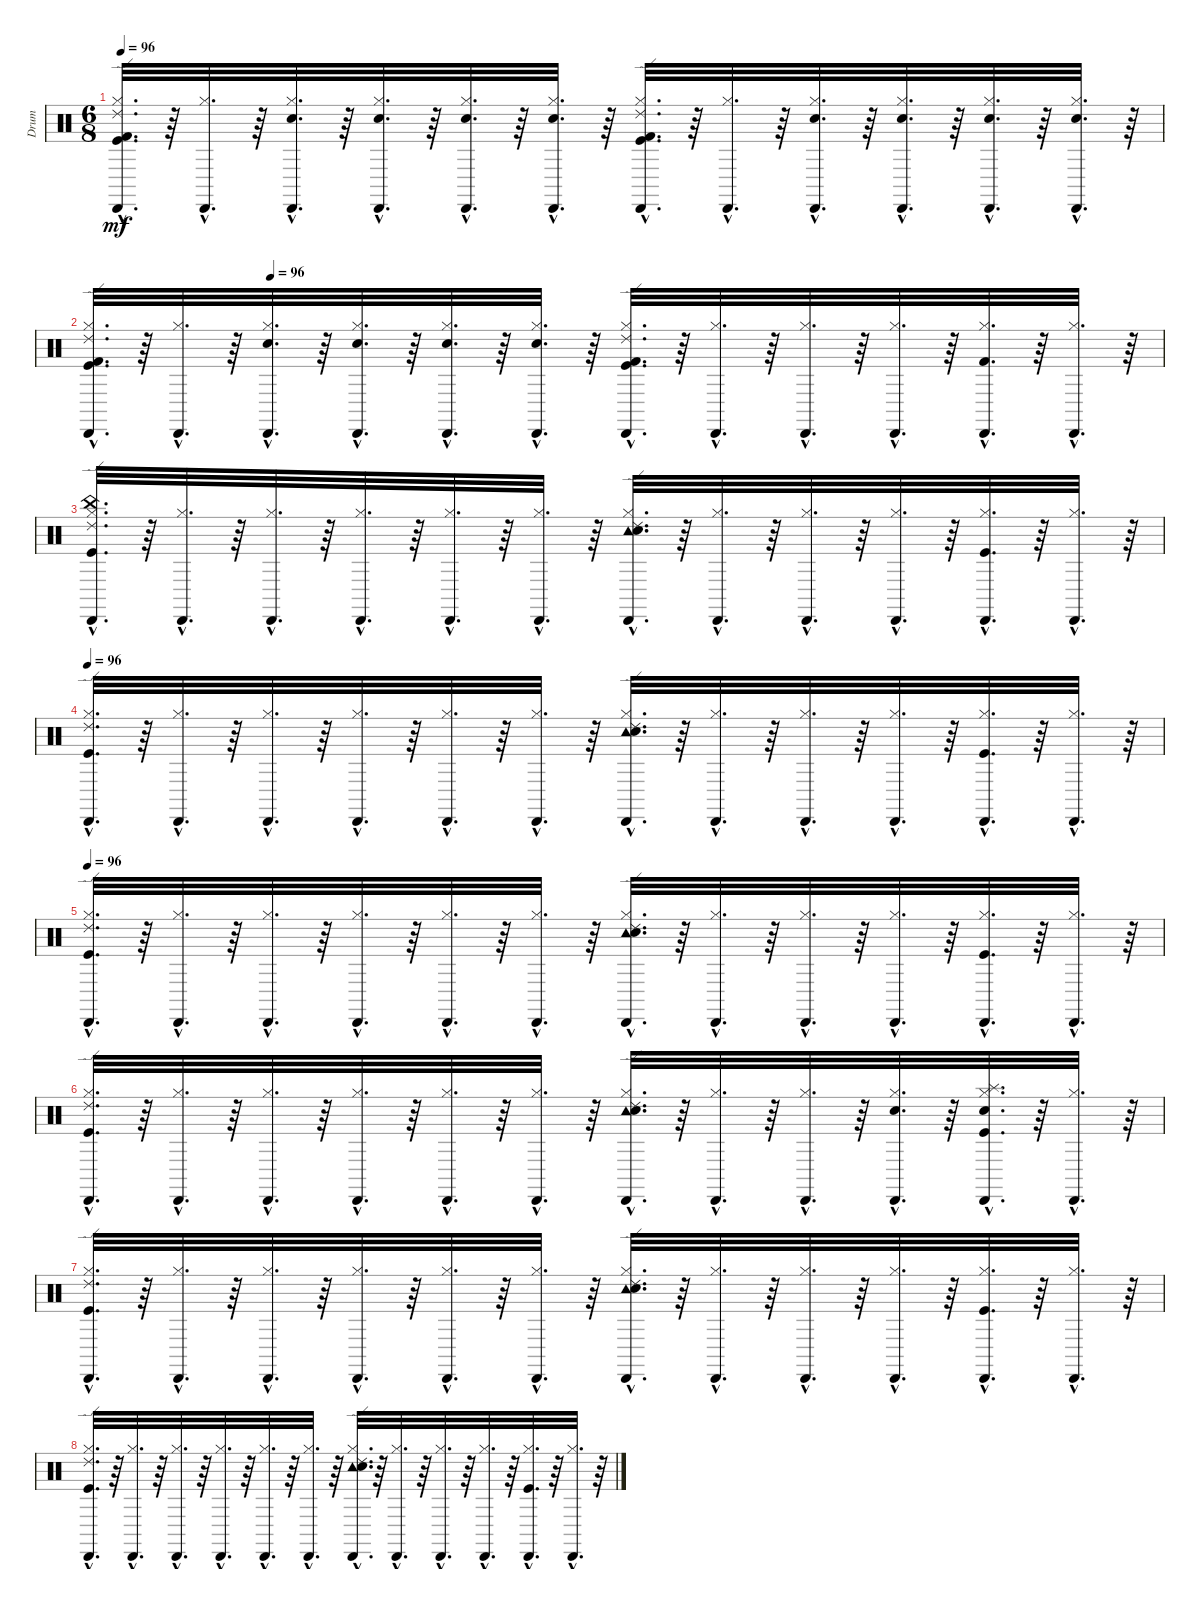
\track ("Drum" "Drum") {instrument percussion}
\staff {score}
\articulation defaults
\ts (6 8)
\tempo 96
\clef neutral
\ks c
("Kick (hit) 2"{hac} "Kick (hit)"{hac} "Hi-Hat (closed)"{hac} "Ride (edge) 2"{hac} "Cabasa (hit)"{hac}).32{d dy mf} r.64 ("Cabasa (hit)"{hac} "Hi-Hat (closed)"{hac}).32{d} r.64 ("Snare (hit) 2"{hac} "Hi-Hat (closed)"{hac} "Cabasa (hit)"{hac}).32{d} r.64 ("Hi-Hat (closed)"{hac} "Snare (hit) 2"{hac} "Cabasa (hit)"{hac}).32{d} r.64 ("Hi-Hat (closed)"{hac} "Cabasa (hit)"{hac} "Snare (hit) 2"{hac}).32{d} r.64 ("Hi-Hat (closed)"{hac} "Snare (hit) 2"{hac} "Cabasa (hit)"{hac}).32{d} r.64 ("Hi-Hat (closed)"{hac} "Cabasa (hit)"{hac} "Kick (hit) 2"{hac} "Ride (edge) 2"{hac} "Kick (hit)"{hac}).32{d} r.64 ("Hi-Hat (closed)"{hac} "Cabasa (hit)"{hac}).32{d} r.64 ("Cabasa (hit)"{hac} "Hi-Hat (closed)"{hac} "Snare (hit) 2"{hac}).32{d} r.64 ("Snare (hit) 2"{hac} "Cabasa (hit)"{hac} "Hi-Hat (closed)"{hac}).32{d} r.64 ("Hi-Hat (closed)"{hac} "Cabasa (hit)"{hac} "Snare (hit) 2"{hac}).32{d} r.64 ("Hi-Hat (closed)"{hac} "Snare (hit) 2"{hac} "Cabasa (hit)"{hac}).32{d} r.64 |
\tempo (96 0.16666666666666666)
("Ride (edge) 2"{hac} "Cabasa (hit)"{hac} "Hi-Hat (closed)"{hac} "Kick (hit)"{hac} "Kick (hit) 2"{hac}).32{d} r.64 ("Cabasa (hit)"{hac} "Hi-Hat (closed)"{hac}).32{d} r.64 ("Snare (hit) 2"{hac} "Cabasa (hit)"{hac} "Hi-Hat (closed)"{hac}).32{d} r.64 ("Snare (hit) 2"{hac} "Hi-Hat (closed)"{hac} "Cabasa (hit)"{hac}).32{d} r.64 ("Snare (hit) 2"{hac} "Hi-Hat (closed)"{hac} "Cabasa (hit)"{hac}).32{d} r.64 ("Snare (hit) 2"{hac} "Hi-Hat (closed)"{hac} "Cabasa (hit)"{hac}).32{d} r.64 ("Kick (hit) 2"{hac} "Kick (hit)"{hac} "Hi-Hat (closed)"{hac} "Cabasa (hit)"{hac} "Ride (edge) 2"{hac}).32{d} r.64 ("Hi-Hat (closed)"{hac} "Cabasa (hit)"{hac}).32{d} r.64 ("Cabasa (hit)"{hac} "Hi-Hat (closed)"{hac}).32{d} r.64 ("Cabasa (hit)"{hac} "Hi-Hat (closed)"{hac}).32{d} r.64 ("Cabasa (hit)"{hac} "Kick (hit) 2"{hac} "Hi-Hat (closed)"{hac}).32{d} r.64 ("Cabasa (hit)"{hac} "Hi-Hat (closed)"{hac}).32{d} r.64 |
("China (hit)"{hac} "Ride (edge) 2"{hac} "Cabasa (hit)"{hac} "Kick (hit)"{hac} "Hi-Hat (closed)"{hac}).32{d} r.64 ("Cabasa (hit)"{hac} "Hi-Hat (closed)"{hac}).32{d} r.64 ("Cabasa (hit)"{hac} "Hi-Hat (closed)"{hac}).32{d} r.64 ("Cabasa (hit)"{hac} "Hi-Hat (closed)"{hac}).32{d} r.64 ("Cabasa (hit)"{hac} "Hi-Hat (closed)"{hac}).32{d} r.64 ("Cabasa (hit)"{hac} "Hi-Hat (closed)"{hac}).32{d} r.64 ("Tambourine (hit)"{hac} "Ride (edge) 2"{hac} "Cabasa (hit)"{hac} "Snare (hit) 2"{hac} "Hi-Hat (closed)"{hac}).32{d} r.64 ("Cabasa (hit)"{hac} "Hi-Hat (closed)"{hac}).32{d} r.64 ("Cabasa (hit)"{hac} "Hi-Hat (closed)"{hac}).32{d} r.64 ("Cabasa (hit)"{hac} "Hi-Hat (closed)"{hac}).32{d} r.64 ("Kick (hit)"{hac} "Cabasa (hit)"{hac} "Hi-Hat (closed)"{hac}).32{d} r.64 ("Cabasa (hit)"{hac} "Hi-Hat (closed)"{hac}).32{d} r.64 |
\tempo 96
("Ride (edge) 2"{hac} "Cabasa (hit)"{hac} "Hi-Hat (closed)"{hac} "Kick (hit)"{hac}).32{d} r.64 ("Cabasa (hit)"{hac} "Hi-Hat (closed)"{hac}).32{d} r.64 ("Cabasa (hit)"{hac} "Hi-Hat (closed)"{hac}).32{d} r.64 ("Cabasa (hit)"{hac} "Hi-Hat (closed)"{hac}).32{d} r.64 ("Cabasa (hit)"{hac} "Hi-Hat (closed)"{hac}).32{d} r.64 ("Cabasa (hit)"{hac} "Hi-Hat (closed)"{hac}).32{d} r.64 ("Tambourine (hit)"{hac} "Ride (edge) 2"{hac} "Cabasa (hit)"{hac} "Hi-Hat (closed)"{hac} "Snare (hit) 2"{hac}).32{d} r.64 ("Cabasa (hit)"{hac} "Hi-Hat (closed)"{hac}).32{d} r.64 ("Cabasa (hit)"{hac} "Hi-Hat (closed)"{hac}).32{d} r.64 ("Cabasa (hit)"{hac} "Hi-Hat (closed)"{hac}).32{d} r.64 ("Kick (hit)"{hac} "Cabasa (hit)"{hac} "Hi-Hat (closed)"{hac}).32{d} r.64 ("Cabasa (hit)"{hac} "Hi-Hat (closed)"{hac}).32{d} r.64 |
\tempo 96
("Kick (hit)"{hac} "Hi-Hat (closed)"{hac} "Cabasa (hit)"{hac} "Ride (edge) 2"{hac}).32{d} r.64 ("Hi-Hat (closed)"{hac} "Cabasa (hit)"{hac}).32{d} r.64 ("Hi-Hat (closed)"{hac} "Cabasa (hit)"{hac}).32{d} r.64 ("Hi-Hat (closed)"{hac} "Cabasa (hit)"{hac}).32{d} r.64 ("Hi-Hat (closed)"{hac} "Cabasa (hit)"{hac}).32{d} r.64 ("Hi-Hat (closed)"{hac} "Cabasa (hit)"{hac}).32{d} r.64 ("Tambourine (hit)"{hac} "Snare (hit) 2"{hac} "Hi-Hat (closed)"{hac} "Cabasa (hit)"{hac} "Ride (edge) 2"{hac}).32{d} r.64 ("Hi-Hat (closed)"{hac} "Cabasa (hit)"{hac}).32{d} r.64 ("Hi-Hat (closed)"{hac} "Cabasa (hit)"{hac}).32{d} r.64 ("Hi-Hat (closed)"{hac} "Cabasa (hit)"{hac}).32{d} r.64 ("Kick (hit)"{hac} "Hi-Hat (closed)"{hac} "Cabasa (hit)"{hac}).32{d} r.64 ("Hi-Hat (closed)"{hac} "Cabasa (hit)"{hac}).32{d} r.64 |
("Kick (hit)"{hac} "Hi-Hat (closed)"{hac} "Cabasa (hit)"{hac} "Ride (edge) 2"{hac}).32{d} r.64 ("Hi-Hat (closed)"{hac} "Cabasa (hit)"{hac}).32{d} r.64 ("Hi-Hat (closed)"{hac} "Cabasa (hit)"{hac}).32{d} r.64 ("Hi-Hat (closed)"{hac} "Cabasa (hit)"{hac}).32{d} r.64 ("Hi-Hat (closed)"{hac} "Cabasa (hit)"{hac}).32{d} r.64 ("Hi-Hat (closed)"{hac} "Cabasa (hit)"{hac}).32{d} r.64 ("Tambourine (hit)"{hac} "Snare (hit) 2"{hac} "Hi-Hat (closed)"{hac} "Cabasa (hit)"{hac} "Ride (edge) 2"{hac}).32{d} r.64 ("Hi-Hat (closed)"{hac} "Cabasa (hit)"{hac}).32{d} r.64 ("Hi-Hat (closed)"{hac} "Cabasa (hit)"{hac}).32{d} r.64 ("Hi-Hat (closed)"{hac} "Cabasa (hit)"{hac} "Snare (hit) 2"{hac}).32{d} r.64 ("Kick (hit)"{hac} "Splash (hit)"{hac} "Hi-Hat (closed)"{hac} "Cabasa (hit)"{hac} "Snare (hit) 2"{hac}).32{d} r.64 ("Hi-Hat (closed)"{hac} "Cabasa (hit)"{hac}).32{d} r.64 |
("Ride (edge) 2"{hac} "Cabasa (hit)"{hac} "Kick (hit)"{hac} "Hi-Hat (closed)"{hac}).32{d} r.64 ("Cabasa (hit)"{hac} "Hi-Hat (closed)"{hac}).32{d} r.64 ("Cabasa (hit)"{hac} "Hi-Hat (closed)"{hac}).32{d} r.64 ("Cabasa (hit)"{hac} "Hi-Hat (closed)"{hac}).32{d} r.64 ("Cabasa (hit)"{hac} "Hi-Hat (closed)"{hac}).32{d} r.64 ("Cabasa (hit)"{hac} "Hi-Hat (closed)"{hac}).32{d} r.64 ("Tambourine (hit)"{hac} "Ride (edge) 2"{hac} "Cabasa (hit)"{hac} "Snare (hit) 2"{hac} "Hi-Hat (closed)"{hac}).32{d} r.64 ("Cabasa (hit)"{hac} "Hi-Hat (closed)"{hac}).32{d} r.64 ("Cabasa (hit)"{hac} "Hi-Hat (closed)"{hac}).32{d} r.64 ("Cabasa (hit)"{hac} "Hi-Hat (closed)"{hac}).32{d} r.64 ("Kick (hit)"{hac} "Cabasa (hit)"{hac} "Hi-Hat (closed)"{hac}).32{d} r.64 ("Cabasa (hit)"{hac} "Hi-Hat (closed)"{hac}).32{d} r.64 |
("Ride (edge) 2"{hac} "Cabasa (hit)"{hac} "Hi-Hat (closed)"{hac} "Kick (hit)"{hac}).32{d} r.64 ("Cabasa (hit)"{hac} "Hi-Hat (closed)"{hac}).32{d} r.64 ("Cabasa (hit)"{hac} "Hi-Hat (closed)"{hac}).32{d} r.64 ("Cabasa (hit)"{hac} "Hi-Hat (closed)"{hac}).32{d} r.64 ("Cabasa (hit)"{hac} "Hi-Hat (closed)"{hac}).32{d} r.64 ("Cabasa (hit)"{hac} "Hi-Hat (closed)"{hac}).32{d} r.64 ("Tambourine (hit)"{hac} "Ride (edge) 2"{hac} "Cabasa (hit)"{hac} "Hi-Hat (closed)"{hac} "Snare (hit) 2"{hac}).32{d} r.64 ("Cabasa (hit)"{hac} "Hi-Hat (closed)"{hac}).32{d} r.64 ("Cabasa (hit)"{hac} "Hi-Hat (closed)"{hac}).32{d} r.64 ("Cabasa (hit)"{hac} "Hi-Hat (closed)"{hac}).32{d} r.64 ("Kick (hit)"{hac} "Cabasa (hit)"{hac} "Hi-Hat (closed)"{hac}).32{d} r.64 ("Cabasa (hit)"{hac} "Hi-Hat (closed)"{hac}).32{d} r.64
